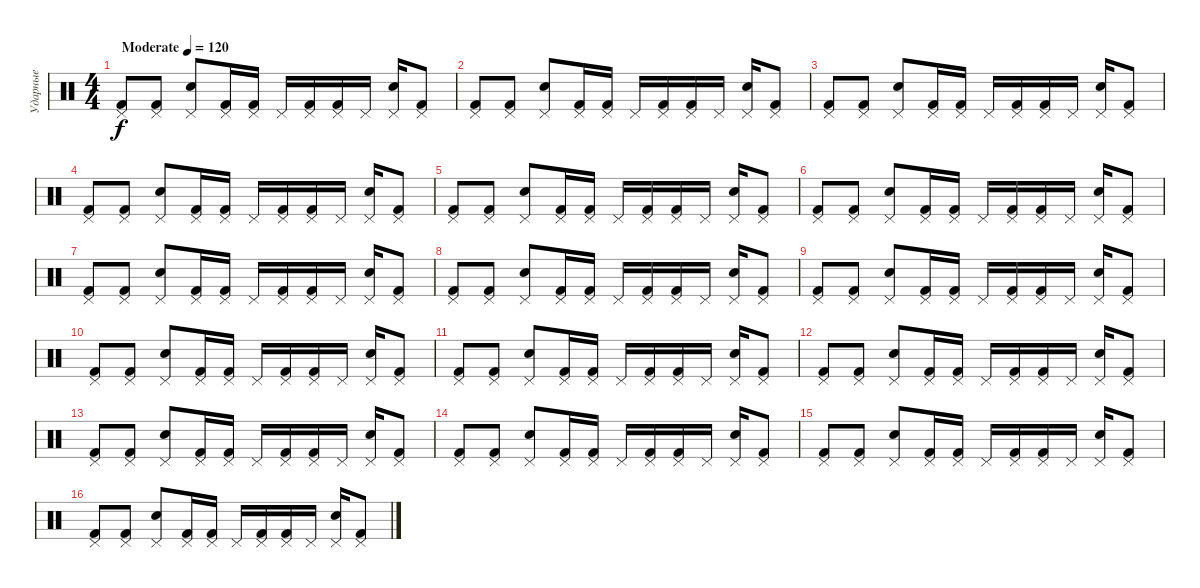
\track ("Ударные" "Ударные") {instrument percussion}
\staff {score}
\articulation defaults
\ts (4 4)
\tempo (120 "Moderate")
\clef neutral
\ks c
("Pedal Hi-Hat (hit)" "Kick (hit) 2").8{dy f} ("Pedal Hi-Hat (hit)" "Kick (hit) 2").8 ("Pedal Hi-Hat (hit)" "Snare (hit) 2").8 ("Pedal Hi-Hat (hit)" "Kick (hit) 2").16 ("Pedal Hi-Hat (hit)" "Kick (hit) 2").16 "Pedal Hi-Hat (hit)".16 ("Pedal Hi-Hat (hit)" "Kick (hit) 2").16 ("Pedal Hi-Hat (hit)" "Kick (hit) 2").16 "Pedal Hi-Hat (hit)".16 ("Pedal Hi-Hat (hit)" "Snare (hit) 2").16 ("Pedal Hi-Hat (hit)" "Kick (hit) 2").8 |
("Pedal Hi-Hat (hit)" "Kick (hit) 2").8 ("Pedal Hi-Hat (hit)" "Kick (hit) 2").8 ("Pedal Hi-Hat (hit)" "Snare (hit) 2").8 ("Pedal Hi-Hat (hit)" "Kick (hit) 2").16 ("Pedal Hi-Hat (hit)" "Kick (hit) 2").16 "Pedal Hi-Hat (hit)".16 ("Pedal Hi-Hat (hit)" "Kick (hit) 2").16 ("Pedal Hi-Hat (hit)" "Kick (hit) 2").16 "Pedal Hi-Hat (hit)".16 ("Pedal Hi-Hat (hit)" "Snare (hit) 2").16 ("Pedal Hi-Hat (hit)" "Kick (hit) 2").8 |
("Pedal Hi-Hat (hit)" "Kick (hit) 2").8 ("Pedal Hi-Hat (hit)" "Kick (hit) 2").8 ("Pedal Hi-Hat (hit)" "Snare (hit) 2").8 ("Pedal Hi-Hat (hit)" "Kick (hit) 2").16 ("Pedal Hi-Hat (hit)" "Kick (hit) 2").16 "Pedal Hi-Hat (hit)".16 ("Pedal Hi-Hat (hit)" "Kick (hit) 2").16 ("Pedal Hi-Hat (hit)" "Kick (hit) 2").16 "Pedal Hi-Hat (hit)".16 ("Pedal Hi-Hat (hit)" "Snare (hit) 2").16 ("Pedal Hi-Hat (hit)" "Kick (hit) 2").8 |
("Pedal Hi-Hat (hit)" "Kick (hit) 2").8 ("Pedal Hi-Hat (hit)" "Kick (hit) 2").8 ("Pedal Hi-Hat (hit)" "Snare (hit) 2").8 ("Pedal Hi-Hat (hit)" "Kick (hit) 2").16 ("Pedal Hi-Hat (hit)" "Kick (hit) 2").16 "Pedal Hi-Hat (hit)".16 ("Pedal Hi-Hat (hit)" "Kick (hit) 2").16 ("Pedal Hi-Hat (hit)" "Kick (hit) 2").16 "Pedal Hi-Hat (hit)".16 ("Pedal Hi-Hat (hit)" "Snare (hit) 2").16 ("Pedal Hi-Hat (hit)" "Kick (hit) 2").8 |
("Pedal Hi-Hat (hit)" "Kick (hit) 2").8 ("Pedal Hi-Hat (hit)" "Kick (hit) 2").8 ("Pedal Hi-Hat (hit)" "Snare (hit) 2").8 ("Pedal Hi-Hat (hit)" "Kick (hit) 2").16 ("Pedal Hi-Hat (hit)" "Kick (hit) 2").16 "Pedal Hi-Hat (hit)".16 ("Pedal Hi-Hat (hit)" "Kick (hit) 2").16 ("Pedal Hi-Hat (hit)" "Kick (hit) 2").16 "Pedal Hi-Hat (hit)".16 ("Pedal Hi-Hat (hit)" "Snare (hit) 2").16 ("Pedal Hi-Hat (hit)" "Kick (hit) 2").8 |
("Pedal Hi-Hat (hit)" "Kick (hit) 2").8 ("Pedal Hi-Hat (hit)" "Kick (hit) 2").8 ("Pedal Hi-Hat (hit)" "Snare (hit) 2").8 ("Pedal Hi-Hat (hit)" "Kick (hit) 2").16 ("Pedal Hi-Hat (hit)" "Kick (hit) 2").16 "Pedal Hi-Hat (hit)".16 ("Pedal Hi-Hat (hit)" "Kick (hit) 2").16 ("Pedal Hi-Hat (hit)" "Kick (hit) 2").16 "Pedal Hi-Hat (hit)".16 ("Pedal Hi-Hat (hit)" "Snare (hit) 2").16 ("Pedal Hi-Hat (hit)" "Kick (hit) 2").8 |
("Pedal Hi-Hat (hit)" "Kick (hit) 2").8 ("Pedal Hi-Hat (hit)" "Kick (hit) 2").8 ("Pedal Hi-Hat (hit)" "Snare (hit) 2").8 ("Pedal Hi-Hat (hit)" "Kick (hit) 2").16 ("Pedal Hi-Hat (hit)" "Kick (hit) 2").16 "Pedal Hi-Hat (hit)".16 ("Pedal Hi-Hat (hit)" "Kick (hit) 2").16 ("Pedal Hi-Hat (hit)" "Kick (hit) 2").16 "Pedal Hi-Hat (hit)".16 ("Pedal Hi-Hat (hit)" "Snare (hit) 2").16 ("Pedal Hi-Hat (hit)" "Kick (hit) 2").8 |
("Pedal Hi-Hat (hit)" "Kick (hit) 2").8 ("Pedal Hi-Hat (hit)" "Kick (hit) 2").8 ("Pedal Hi-Hat (hit)" "Snare (hit) 2").8 ("Pedal Hi-Hat (hit)" "Kick (hit) 2").16 ("Pedal Hi-Hat (hit)" "Kick (hit) 2").16 "Pedal Hi-Hat (hit)".16 ("Pedal Hi-Hat (hit)" "Kick (hit) 2").16 ("Pedal Hi-Hat (hit)" "Kick (hit) 2").16 "Pedal Hi-Hat (hit)".16 ("Pedal Hi-Hat (hit)" "Snare (hit) 2").16 ("Pedal Hi-Hat (hit)" "Kick (hit) 2").8 |
("Pedal Hi-Hat (hit)" "Kick (hit) 2").8 ("Pedal Hi-Hat (hit)" "Kick (hit) 2").8 ("Pedal Hi-Hat (hit)" "Snare (hit) 2").8 ("Pedal Hi-Hat (hit)" "Kick (hit) 2").16 ("Pedal Hi-Hat (hit)" "Kick (hit) 2").16 "Pedal Hi-Hat (hit)".16 ("Pedal Hi-Hat (hit)" "Kick (hit) 2").16 ("Pedal Hi-Hat (hit)" "Kick (hit) 2").16 "Pedal Hi-Hat (hit)".16 ("Pedal Hi-Hat (hit)" "Snare (hit) 2").16 ("Pedal Hi-Hat (hit)" "Kick (hit) 2").8 |
("Pedal Hi-Hat (hit)" "Kick (hit) 2").8 ("Pedal Hi-Hat (hit)" "Kick (hit) 2").8 ("Pedal Hi-Hat (hit)" "Snare (hit) 2").8 ("Pedal Hi-Hat (hit)" "Kick (hit) 2").16 ("Pedal Hi-Hat (hit)" "Kick (hit) 2").16 "Pedal Hi-Hat (hit)".16 ("Pedal Hi-Hat (hit)" "Kick (hit) 2").16 ("Pedal Hi-Hat (hit)" "Kick (hit) 2").16 "Pedal Hi-Hat (hit)".16 ("Pedal Hi-Hat (hit)" "Snare (hit) 2").16 ("Pedal Hi-Hat (hit)" "Kick (hit) 2").8 |
("Pedal Hi-Hat (hit)" "Kick (hit) 2").8 ("Pedal Hi-Hat (hit)" "Kick (hit) 2").8 ("Pedal Hi-Hat (hit)" "Snare (hit) 2").8 ("Pedal Hi-Hat (hit)" "Kick (hit) 2").16 ("Pedal Hi-Hat (hit)" "Kick (hit) 2").16 "Pedal Hi-Hat (hit)".16 ("Pedal Hi-Hat (hit)" "Kick (hit) 2").16 ("Pedal Hi-Hat (hit)" "Kick (hit) 2").16 "Pedal Hi-Hat (hit)".16 ("Pedal Hi-Hat (hit)" "Snare (hit) 2").16 ("Pedal Hi-Hat (hit)" "Kick (hit) 2").8 |
("Pedal Hi-Hat (hit)" "Kick (hit) 2").8 ("Pedal Hi-Hat (hit)" "Kick (hit) 2").8 ("Pedal Hi-Hat (hit)" "Snare (hit) 2").8 ("Pedal Hi-Hat (hit)" "Kick (hit) 2").16 ("Pedal Hi-Hat (hit)" "Kick (hit) 2").16 "Pedal Hi-Hat (hit)".16 ("Pedal Hi-Hat (hit)" "Kick (hit) 2").16 ("Pedal Hi-Hat (hit)" "Kick (hit) 2").16 "Pedal Hi-Hat (hit)".16 ("Pedal Hi-Hat (hit)" "Snare (hit) 2").16 ("Pedal Hi-Hat (hit)" "Kick (hit) 2").8 |
("Pedal Hi-Hat (hit)" "Kick (hit) 2").8 ("Pedal Hi-Hat (hit)" "Kick (hit) 2").8 ("Pedal Hi-Hat (hit)" "Snare (hit) 2").8 ("Pedal Hi-Hat (hit)" "Kick (hit) 2").16 ("Pedal Hi-Hat (hit)" "Kick (hit) 2").16 "Pedal Hi-Hat (hit)".16 ("Pedal Hi-Hat (hit)" "Kick (hit) 2").16 ("Pedal Hi-Hat (hit)" "Kick (hit) 2").16 "Pedal Hi-Hat (hit)".16 ("Pedal Hi-Hat (hit)" "Snare (hit) 2").16 ("Pedal Hi-Hat (hit)" "Kick (hit) 2").8 |
("Pedal Hi-Hat (hit)" "Kick (hit) 2").8 ("Pedal Hi-Hat (hit)" "Kick (hit) 2").8 ("Pedal Hi-Hat (hit)" "Snare (hit) 2").8 ("Pedal Hi-Hat (hit)" "Kick (hit) 2").16 ("Pedal Hi-Hat (hit)" "Kick (hit) 2").16 "Pedal Hi-Hat (hit)".16 ("Pedal Hi-Hat (hit)" "Kick (hit) 2").16 ("Pedal Hi-Hat (hit)" "Kick (hit) 2").16 "Pedal Hi-Hat (hit)".16 ("Pedal Hi-Hat (hit)" "Snare (hit) 2").16 ("Pedal Hi-Hat (hit)" "Kick (hit) 2").8 |
("Pedal Hi-Hat (hit)" "Kick (hit) 2").8 ("Pedal Hi-Hat (hit)" "Kick (hit) 2").8 ("Pedal Hi-Hat (hit)" "Snare (hit) 2").8 ("Pedal Hi-Hat (hit)" "Kick (hit) 2").16 ("Pedal Hi-Hat (hit)" "Kick (hit) 2").16 "Pedal Hi-Hat (hit)".16 ("Pedal Hi-Hat (hit)" "Kick (hit) 2").16 ("Pedal Hi-Hat (hit)" "Kick (hit) 2").16 "Pedal Hi-Hat (hit)".16 ("Pedal Hi-Hat (hit)" "Snare (hit) 2").16 ("Pedal Hi-Hat (hit)" "Kick (hit) 2").8 |
("Pedal Hi-Hat (hit)" "Kick (hit) 2").8 ("Pedal Hi-Hat (hit)" "Kick (hit) 2").8 ("Pedal Hi-Hat (hit)" "Snare (hit) 2").8 ("Pedal Hi-Hat (hit)" "Kick (hit) 2").16 ("Pedal Hi-Hat (hit)" "Kick (hit) 2").16 "Pedal Hi-Hat (hit)".16 ("Pedal Hi-Hat (hit)" "Kick (hit) 2").16 ("Pedal Hi-Hat (hit)" "Kick (hit) 2").16 "Pedal Hi-Hat (hit)".16 ("Pedal Hi-Hat (hit)" "Snare (hit) 2").16 ("Pedal Hi-Hat (hit)" "Kick (hit) 2").8
